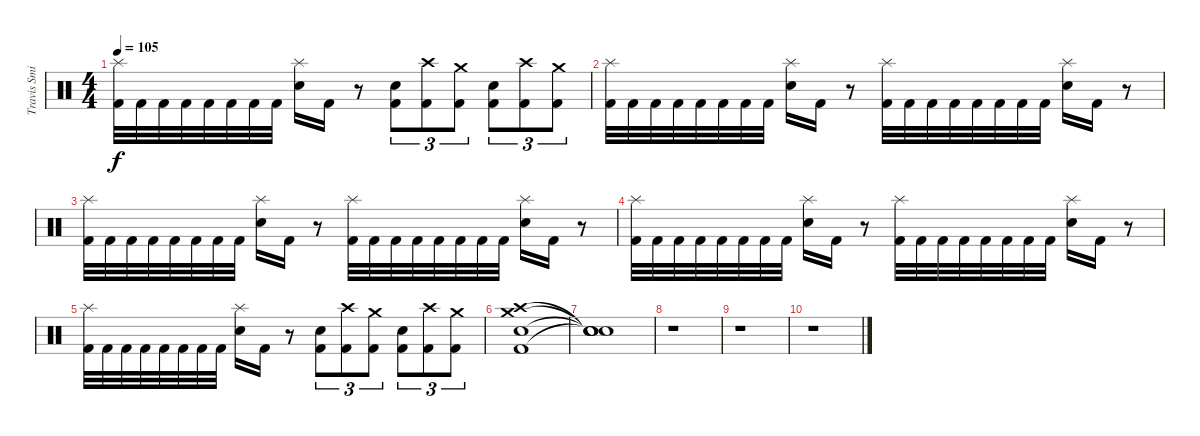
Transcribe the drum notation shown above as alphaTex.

\track ("Travis Smith" "Travis Smi") {instrument percussion}
\staff {score}
\articulation defaults
\ts (4 4)
\tempo 105
\clef neutral
\ks c
("Splash (hit)" "Kick (hit) 2").32{dy f} "Kick (hit) 2".32 "Kick (hit) 2".32 "Kick (hit) 2".32 "Kick (hit) 2".32 "Kick (hit) 2".32 "Kick (hit) 2".32 "Kick (hit) 2".32 ("Splash (hit)" "Snare (hit) 2").16 "Kick (hit) 2".16 r.8 ("Snare (hit) 2" "Kick (hit) 2").8{tu (3 2)} ("Crash high (hit)" "Kick (hit) 2").8{tu (3 2)} ("Crash medium (hit)" "Kick (hit) 2").8{tu (3 2)} ("Snare (hit) 2" "Kick (hit) 2").8{tu (3 2)} ("Crash high (hit)" "Kick (hit) 2").8{tu (3 2)} ("Crash medium (hit)" "Kick (hit) 2").8{tu (3 2)} |
("Splash (hit)" "Kick (hit) 2").32 "Kick (hit) 2".32 "Kick (hit) 2".32 "Kick (hit) 2".32 "Kick (hit) 2".32 "Kick (hit) 2".32 "Kick (hit) 2".32 "Kick (hit) 2".32 ("Splash (hit)" "Snare (hit) 2").16 "Kick (hit) 2".16 r.8 ("Splash (hit)" "Kick (hit) 2").32 "Kick (hit) 2".32 "Kick (hit) 2".32 "Kick (hit) 2".32 "Kick (hit) 2".32 "Kick (hit) 2".32 "Kick (hit) 2".32 "Kick (hit) 2".32 ("Splash (hit)" "Snare (hit) 2").16 "Kick (hit) 2".16 r.8 |
("Splash (hit)" "Kick (hit) 2").32 "Kick (hit) 2".32 "Kick (hit) 2".32 "Kick (hit) 2".32 "Kick (hit) 2".32 "Kick (hit) 2".32 "Kick (hit) 2".32 "Kick (hit) 2".32 ("Splash (hit)" "Snare (hit) 2").16 "Kick (hit) 2".16 r.8 ("Splash (hit)" "Kick (hit) 2").32 "Kick (hit) 2".32 "Kick (hit) 2".32 "Kick (hit) 2".32 "Kick (hit) 2".32 "Kick (hit) 2".32 "Kick (hit) 2".32 "Kick (hit) 2".32 ("Splash (hit)" "Snare (hit) 2").16 "Kick (hit) 2".16 r.8 |
("Splash (hit)" "Kick (hit) 2").32 "Kick (hit) 2".32 "Kick (hit) 2".32 "Kick (hit) 2".32 "Kick (hit) 2".32 "Kick (hit) 2".32 "Kick (hit) 2".32 "Kick (hit) 2".32 ("Splash (hit)" "Snare (hit) 2").16 "Kick (hit) 2".16 r.8 ("Splash (hit)" "Kick (hit) 2").32 "Kick (hit) 2".32 "Kick (hit) 2".32 "Kick (hit) 2".32 "Kick (hit) 2".32 "Kick (hit) 2".32 "Kick (hit) 2".32 "Kick (hit) 2".32 ("Splash (hit)" "Snare (hit) 2").16 "Kick (hit) 2".16 r.8 |
("Splash (hit)" "Kick (hit) 2").32 "Kick (hit) 2".32 "Kick (hit) 2".32 "Kick (hit) 2".32 "Kick (hit) 2".32 "Kick (hit) 2".32 "Kick (hit) 2".32 "Kick (hit) 2".32 ("Splash (hit)" "Snare (hit) 2").16 "Kick (hit) 2".16 r.8 ("Snare (hit) 2" "Kick (hit) 2").8{tu (3 2)} ("Crash high (hit)" "Kick (hit) 2").8{tu (3 2)} ("Crash medium (hit)" "Kick (hit) 2").8{tu (3 2)} ("Snare (hit) 2" "Kick (hit) 2").8{tu (3 2)} ("Crash high (hit)" "Kick (hit) 2").8{tu (3 2)} ("Crash medium (hit)" "Kick (hit) 2").8{tu (3 2)} |
("Crash medium (hit)" "Crash high (hit)" "Snare (hit) 2" "Kick (hit) 2").1 |
("Snare (hit)"{t} "Snare (hit)"{t} "Snare (hit)"{t} "Snare (hit)"{t}).1 |
r.1 |
r.1 |
r.1
